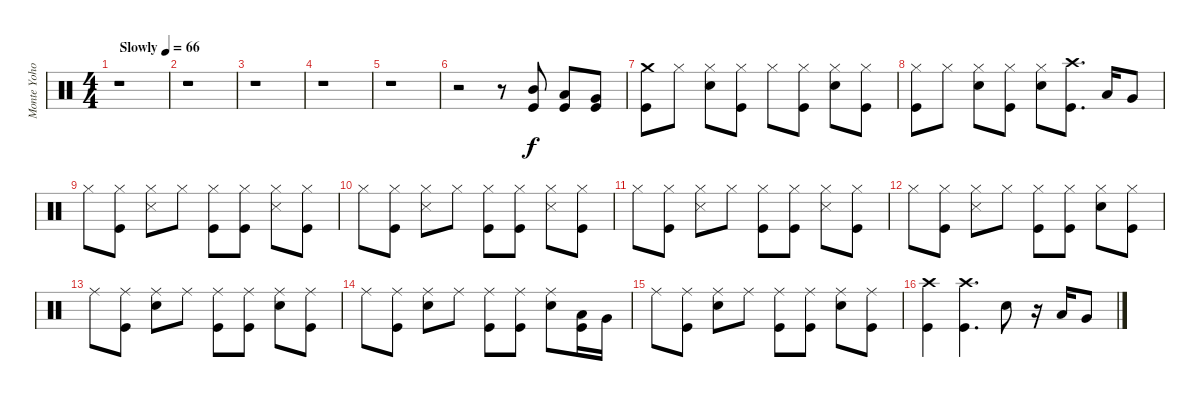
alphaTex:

\track ("Monte Yoho Drums" "Monte Yoho") {instrument percussion}
\staff {score}
\articulation defaults
\ts (4 4)
\tempo (66 "Slowly")
\clef neutral
\ks c
r.1{dy f} |
r.1 |
r.1 |
r.1 |
r.1 |
r.2 r.8 ("Mid Tom (hit)" "Kick (hit)").8{volume 14} ("Low Tom (hit)" "Kick (hit)").8 ("Very Low Tom (hit)" "Kick (hit)").8 |
("Crash medium (hit)" "Kick (hit)").8 "Hi-Hat (closed)".8 ("Hi-Hat (closed)" "Snare (hit) 2").8 ("Hi-Hat (closed)" "Kick (hit)").8 "Hi-Hat (closed)".8 ("Hi-Hat (closed)" "Kick (hit)").8 ("Hi-Hat (closed)" "Snare (hit) 2").8 ("Hi-Hat (closed)" "Kick (hit)").8 |
("Hi-Hat (closed)" "Kick (hit)").8 "Hi-Hat (closed)".8 ("Hi-Hat (closed)" "Snare (hit) 2").8 ("Hi-Hat (closed)" "Kick (hit)").8 ("Hi-Hat (closed)" "Snare (hit) 2").8 ("Crash high (hit)" "Kick (hit)").8{d} "Low Tom (hit)".16 "Very Low Tom (hit)".8 |
"Hi-Hat (closed)".8 ("Hi-Hat (closed)" "Kick (hit)").8 ("Hi-Hat (closed)" "Snare (side stick) 3").8 "Hi-Hat (closed)".8 ("Hi-Hat (closed)" "Kick (hit)").8 ("Hi-Hat (closed)" "Kick (hit)").8 ("Hi-Hat (closed)" "Snare (side stick) 3").8 ("Hi-Hat (closed)" "Kick (hit)").8 |
"Hi-Hat (closed)".8 ("Hi-Hat (closed)" "Kick (hit)").8 ("Hi-Hat (closed)" "Snare (side stick) 3").8 "Hi-Hat (closed)".8 ("Hi-Hat (closed)" "Kick (hit)").8 ("Hi-Hat (closed)" "Kick (hit)").8 ("Hi-Hat (closed)" "Snare (side stick) 3").8 ("Hi-Hat (closed)" "Kick (hit)").8 |
"Hi-Hat (closed)".8 ("Hi-Hat (closed)" "Kick (hit)").8 ("Hi-Hat (closed)" "Snare (side stick) 3").8 "Hi-Hat (closed)".8 ("Hi-Hat (closed)" "Kick (hit)").8 ("Hi-Hat (closed)" "Kick (hit)").8 ("Hi-Hat (closed)" "Snare (side stick) 3").8 ("Hi-Hat (closed)" "Kick (hit)").8 |
"Hi-Hat (closed)".8 ("Hi-Hat (closed)" "Kick (hit)").8 ("Hi-Hat (closed)" "Snare (side stick) 3").8 "Hi-Hat (closed)".8 ("Hi-Hat (closed)" "Kick (hit)").8 ("Hi-Hat (closed)" "Kick (hit)").8 ("Hi-Hat (closed)" "Snare (hit) 2").8 ("Hi-Hat (closed)" "Kick (hit)").8 |
"Ride (middle)".8 ("Ride (middle)" "Kick (hit)").8 ("Ride (middle)" "Snare (hit) 2").8 "Ride (middle)".8 ("Ride (middle)" "Kick (hit)").8 ("Ride (middle)" "Kick (hit)").8 ("Ride (middle)" "Snare (hit) 2").8 ("Ride (middle)" "Kick (hit)").8 |
"Ride (middle)".8 ("Ride (middle)" "Kick (hit)").8 ("Ride (middle)" "Snare (hit) 2").8 "Ride (middle)".8 ("Ride (middle)" "Kick (hit)").8 ("Ride (middle)" "Kick (hit)").8 ("Ride (middle)" "Snare (hit) 2").8 ("Low Tom (hit)" "Kick (hit)").16 "Very Low Tom (hit)".16 |
"Ride (middle)".8 ("Ride (middle)" "Kick (hit)").8 ("Ride (middle)" "Snare (hit) 2").8 "Ride (middle)".8 ("Ride (middle)" "Kick (hit)").8 ("Ride (middle)" "Kick (hit)").8 ("Ride (middle)" "Snare (hit) 2").8 ("Ride (middle)" "Kick (hit)").8 |
("Crash high (hit)" "Kick (hit)").4 ("Crash high (hit)" "Kick (hit)").4{d} "Snare (hit) 2".8 r.16 "Low Tom (hit)".16 "Very Low Tom (hit)".8
